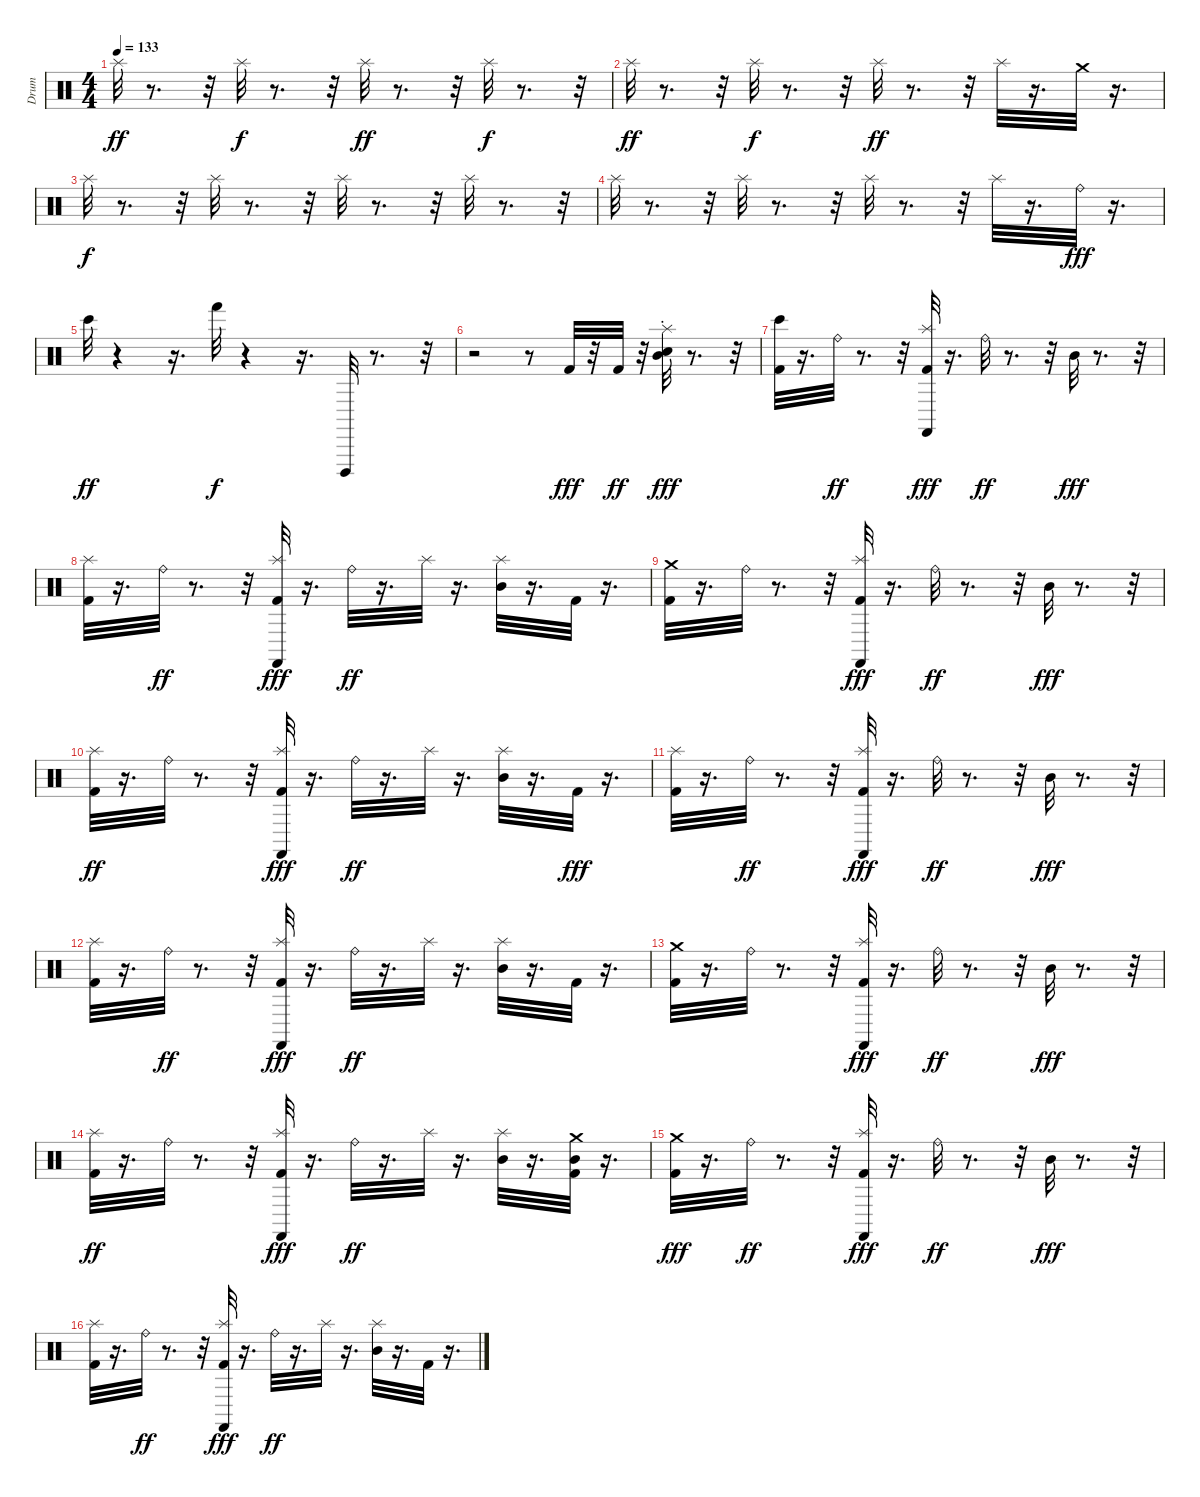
\track ("Drum" "Drum") {instrument percussion}
\staff {score}
\articulation defaults
\ts (4 4)
\tempo 133
\clef neutral
\ks c "Splash (hit)".32{dy ff}
r.8{d} r.32 "Splash (hit)".32{dy f} r.8{d} r.32 "Splash (hit)".32{dy ff} r.8{d} r.32 "Splash (hit)".32{dy f} r.8{d} r.32 |
"Splash (hit)".32{dy ff} r.8{d} r.32 "Splash (hit)".32{dy f} r.8{d} r.32 "Splash (hit)".32{dy ff} r.8{d} r.32 "Splash (hit)".32 r.16{d} "Crash medium (hit)".32 r.16{d} |
"Splash (hit)".32{dy f} r.8{d} r.32 "Splash (hit)".32 r.8{d} r.32 "Splash (hit)".32 r.8{d} r.32 "Splash (hit)".32 r.8{d} r.32 |
"Splash (hit)".32 r.8{d} r.32 "Splash (hit)".32 r.8{d} r.32 "Splash (hit)".32 r.8{d} r.32 "Splash (hit)".32 r.16{d} "Ride (bell)".32{dy fff} r.16{d} |
"Bongo High (hit)".32{dy ff} r.4 r.16{d} "Hand (hit)".32{dy f} r.4 r.16{d} "Cuica (open)".32 r.8{d} r.32 |
r.2 r.8 "Kick (hit) 2".32{dy fff} r.32 "Kick (hit) 2".32{dy ff} r.32 ("Snare (hit)" "Splash (choke)" "Mid Tom (hit)").32{dy fff} r.8{d} r.32 |
("Kick (hit) 2" "Bongo High (hit)").32 r.16{d} "Ride (bell)".32{dy ff} r.8{d} r.32 ("Kick (hit) 2" "Splash (hit)" "Castanets (hit)").32{dy fff} r.16{d} "Ride (bell)".32{dy ff} r.8{d} r.32 "Mid Tom (hit)".32{dy fff} r.8{d} r.32 |
("Kick (hit) 2" "Splash (hit)").32 r.16{d} "Ride (bell)".32{dy ff} r.8{d} r.32 ("Kick (hit) 2" "Splash (hit)" "Castanets (hit)").32{dy fff} r.16{d} "Ride (bell)".32{dy ff} r.16{d} "Splash (hit)".32 r.16{d} ("Mid Tom (hit)" "Splash (hit)").32 r.16{d} "Kick (hit) 2".32 r.16{d} |
("Kick (hit) 2" "Crash medium (hit)").32 r.16{d} "Ride (bell)".32 r.8{d} r.32 ("Kick (hit) 2" "Splash (hit)" "Castanets (hit)").32{dy fff} r.16{d} "Ride (bell)".32{dy ff} r.8{d} r.32 "Mid Tom (hit)".32{dy fff} r.8{d} r.32 |
("Kick (hit) 2" "Splash (hit)").32{dy ff} r.16{d} "Ride (bell)".32 r.8{d} r.32 ("Kick (hit) 2" "Splash (hit)" "Castanets (hit)").32{dy fff} r.16{d} "Ride (bell)".32{dy ff} r.16{d} "Splash (hit)".32 r.16{d} ("Mid Tom (hit)" "Splash (hit)").32 r.16{d} "Kick (hit) 2".32{dy fff} r.16{d} |
("Kick (hit) 2" "Splash (hit)").32 r.16{d} "Ride (bell)".32{dy ff} r.8{d} r.32 ("Kick (hit) 2" "Splash (hit)" "Castanets (hit)").32{dy fff} r.16{d} "Ride (bell)".32{dy ff} r.8{d} r.32 "Mid Tom (hit)".32{dy fff} r.8{d} r.32 |
("Kick (hit) 2" "Splash (hit)").32 r.16{d} "Ride (bell)".32{dy ff} r.8{d} r.32 ("Kick (hit) 2" "Splash (hit)" "Castanets (hit)").32{dy fff} r.16{d} "Ride (bell)".32{dy ff} r.16{d} "Splash (hit)".32 r.16{d} ("Mid Tom (hit)" "Splash (hit)").32 r.16{d} "Kick (hit) 2".32 r.16{d} |
("Kick (hit) 2" "Crash medium (hit)").32 r.16{d} "Ride (bell)".32 r.8{d} r.32 ("Kick (hit) 2" "Splash (hit)" "Castanets (hit)").32{dy fff} r.16{d} "Ride (bell)".32{dy ff} r.8{d} r.32 "Mid Tom (hit)".32{dy fff} r.8{d} r.32 |
("Kick (hit) 2" "Splash (hit)").32{dy ff} r.16{d} "Ride (bell)".32 r.8{d} r.32 ("Kick (hit) 2" "Splash (hit)" "Castanets (hit)").32{dy fff} r.16{d} "Ride (bell)".32{dy ff} r.16{d} "Splash (hit)".32 r.16{d} ("Mid Tom (hit)" "Splash (hit)").32 r.16{d} ("Kick (hit) 2" "Mid Tom (hit)" "Crash medium (hit)").32 r.16{d} |
("Kick (hit) 2" "Crash medium (hit)").32{dy fff} r.16{d} "Ride (bell)".32{dy ff} r.8{d} r.32 ("Kick (hit) 2" "Splash (hit)" "Castanets (hit)").32{dy fff} r.16{d} "Ride (bell)".32{dy ff} r.8{d} r.32 "Mid Tom (hit)".32{dy fff} r.8{d} r.32 |
("Kick (hit) 2" "Splash (hit)").32 r.16{d} "Ride (bell)".32{dy ff} r.8{d} r.32 ("Kick (hit) 2" "Splash (hit)" "Castanets (hit)").32{dy fff} r.16{d} "Ride (bell)".32{dy ff} r.16{d} "Splash (hit)".32 r.16{d} ("Mid Tom (hit)" "Splash (hit)").32 r.16{d} "Kick (hit) 2".32 r.16{d}
